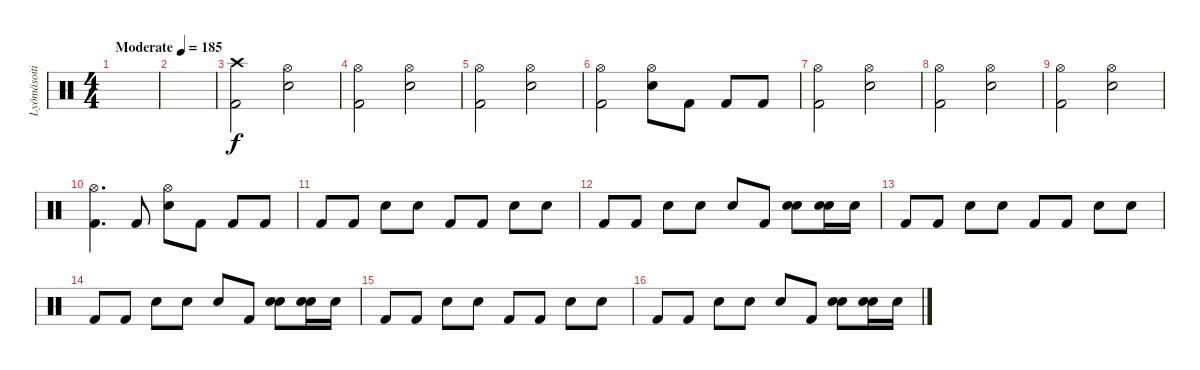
\track ("Lyömäsoitin" "Lyömäsoiti") {instrument percussion}
\staff {score}
\articulation defaults
\ts (4 4)
\tempo (185 "Moderate")
\clef neutral
\ks c
|
|
("Crash high (hit)" "Kick (hit) 2").2 ("Hi-Hat (open)" "Electric Snare (hit)").2 |
("Hi-Hat (open)" "Kick (hit) 2").2 ("Hi-Hat (open)" "Electric Snare (hit)").2 |
("Hi-Hat (open)" "Kick (hit) 2").2 ("Hi-Hat (open)" "Electric Snare (hit)").2 |
("Hi-Hat (open)" "Kick (hit) 2").2 ("Hi-Hat (open)" "Electric Snare (hit)").8 "Kick (hit) 2".8 "Kick (hit) 2".8 "Kick (hit) 2".8 |
("Hi-Hat (open)" "Kick (hit) 2").2 ("Hi-Hat (open)" "Electric Snare (hit)").2 |
("Hi-Hat (open)" "Kick (hit) 2").2 ("Hi-Hat (open)" "Electric Snare (hit)").2 |
("Hi-Hat (open)" "Kick (hit) 2").2 ("Hi-Hat (open)" "Electric Snare (hit)").2 |
("Hi-Hat (open)" "Kick (hit) 2").4{d} "Kick (hit) 2".8 ("Hi-Hat (open)" "Electric Snare (hit)").8 "Kick (hit) 2".8 "Kick (hit) 2".8 "Kick (hit) 2".8 |
"Kick (hit) 2".8 "Kick (hit) 2".8 "Electric Snare (hit)".8 "Snare (hit)".8 "Kick (hit) 2".8 "Kick (hit) 2".8 "Electric Snare (hit)".8 "Snare (hit)".8 |
"Kick (hit) 2".8 "Kick (hit) 2".8 "Snare (hit)".8 "Electric Snare (hit)".8 "Snare (hit)".8 "Kick (hit) 2".8 ("Electric Snare (hit)" "Snare (hit)").8 ("Electric Snare (hit)" "Snare (hit)").16 "Electric Snare (hit)".16 |
"Kick (hit) 2".8 "Kick (hit) 2".8 "Electric Snare (hit)".8 "Snare (hit)".8 "Kick (hit) 2".8 "Kick (hit) 2".8 "Electric Snare (hit)".8 "Snare (hit)".8 |
"Kick (hit) 2".8 "Kick (hit) 2".8 "Snare (hit)".8 "Electric Snare (hit)".8 "Snare (hit)".8 "Kick (hit) 2".8 ("Electric Snare (hit)" "Snare (hit)").8 ("Snare (hit)" "Snare (hit)").16 "Snare (hit)".16 |
"Kick (hit) 2".8 "Kick (hit) 2".8 "Electric Snare (hit)".8 "Snare (hit)".8 "Kick (hit) 2".8 "Kick (hit) 2".8 "Electric Snare (hit)".8 "Snare (hit)".8 |
"Kick (hit) 2".8 "Kick (hit) 2".8 "Snare (hit)".8 "Electric Snare (hit)".8 "Snare (hit)".8 "Kick (hit) 2".8 ("Electric Snare (hit)" "Snare (hit)").8 ("Electric Snare (hit)" "Snare (hit)").16 "Electric Snare (hit)".16
